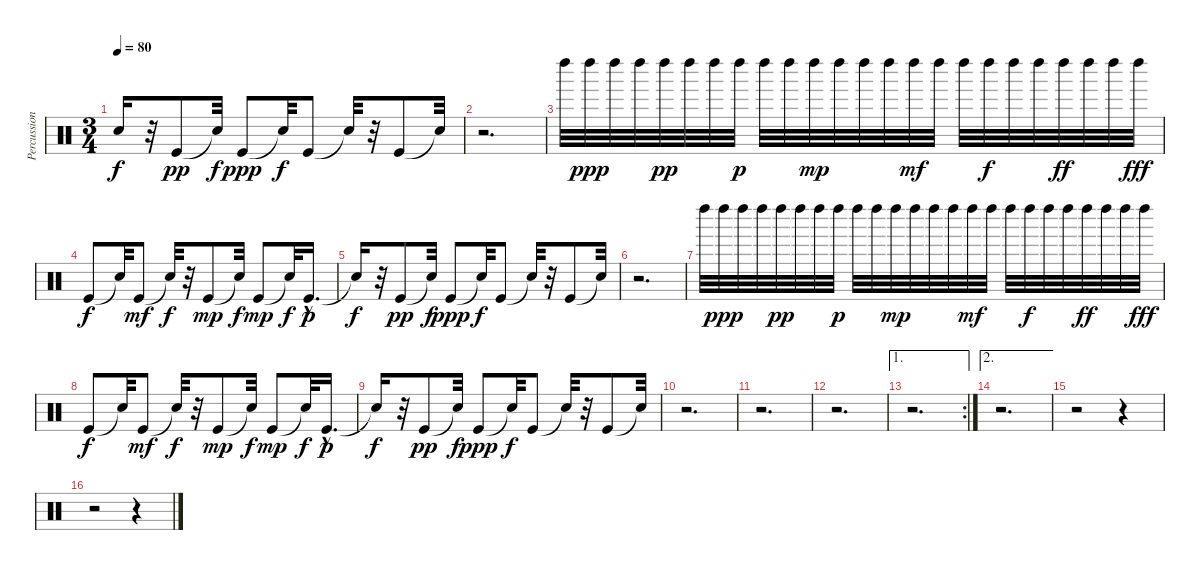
\track ("Percussions" "Percussion") {instrument percussion}
\staff {score}
\articulation defaults
\ts (3 4)
\tempo 80
\clef neutral
\ks c "Snare (hit)"{t}.16{dy f}
r.32 "Kick (hit)".8{dy pp balance 13} "Snare (hit)"{t}.32{dy f} "Kick (hit)".8{dy ppp balance 14} "Snare (hit)"{t}.32{dy f} "Kick (hit)".8{balance 14} "Snare (hit)"{t}.32 r.32 "Kick (hit)".8{balance 15} "Snare (hit)"{t}.32 |
r.2{d} |
"Left Maraca (hit)".32{balance 0} "Left Maraca (hit)".32{dy ppp balance 0} "Left Maraca (hit)".32{balance 1} "Left Maraca (hit)".32{balance 1} "Left Maraca (hit)".32{dy pp balance 2} "Left Maraca (hit)".32{balance 2} "Left Maraca (hit)".32{balance 2} "Left Maraca (hit)".32{dy p balance 3} "Left Maraca (hit)".32{balance 3} "Left Maraca (hit)".32{balance 4} "Left Maraca (hit)".32{dy mp balance 4} "Left Maraca (hit)".32{balance 4} "Left Maraca (hit)".32{balance 5} "Left Maraca (hit)".32{balance 5} "Left Maraca (hit)".32{dy mf balance 5} "Left Maraca (hit)".32{balance 6} "Left Maraca (hit)".32{balance 6} "Left Maraca (hit)".32{dy f balance 7} "Left Maraca (hit)".32{balance 7} "Left Maraca (hit)".32{balance 7} "Left Maraca (hit)".32{dy ff balance 8} "Left Maraca (hit)".32{balance 8} "Left Maraca (hit)".32{balance 8} "Left Maraca (hit)".32{dy fff balance 9} |
"Kick (hit)".8{dy f balance 9} "Snare (hit)"{t}.32 "Kick (hit)".8{dy mf balance 10} "Snare (hit)"{t}.32{dy f} r.32 "Kick (hit)".8{dy mp balance 11} "Snare (hit)"{t}.32{dy f} "Kick (hit)".8{dy mp balance 12} "Snare (hit)"{t}.32{dy f} "Kick (hit)"{hac}.16{d dy p balance 12} |
"Snare (hit)"{t}.16{dy f} r.32 "Kick (hit)".8{dy pp balance 13} "Snare (hit)"{t}.32{dy f} "Kick (hit)".8{dy ppp balance 14} "Snare (hit)"{t}.32{dy f} "Kick (hit)".8{balance 14} "Snare (hit)"{t}.32 r.32 "Kick (hit)".8{balance 15} "Snare (hit)"{t}.32 |
r.2{d} |
"Left Maraca (hit)".32{balance 0} "Left Maraca (hit)".32{dy ppp balance 0} "Left Maraca (hit)".32{balance 1} "Left Maraca (hit)".32{balance 1} "Left Maraca (hit)".32{dy pp balance 2} "Left Maraca (hit)".32{balance 2} "Left Maraca (hit)".32{balance 2} "Left Maraca (hit)".32{dy p balance 3} "Left Maraca (hit)".32{balance 3} "Left Maraca (hit)".32{balance 4} "Left Maraca (hit)".32{dy mp balance 4} "Left Maraca (hit)".32{balance 4} "Left Maraca (hit)".32{balance 5} "Left Maraca (hit)".32{balance 5} "Left Maraca (hit)".32{dy mf balance 5} "Left Maraca (hit)".32{balance 6} "Left Maraca (hit)".32{balance 6} "Left Maraca (hit)".32{dy f balance 7} "Left Maraca (hit)".32{balance 7} "Left Maraca (hit)".32{balance 7} "Left Maraca (hit)".32{dy ff balance 8} "Left Maraca (hit)".32{balance 8} "Left Maraca (hit)".32{balance 8} "Left Maraca (hit)".32{dy fff balance 9} |
"Kick (hit)".8{dy f balance 9} "Snare (hit)"{t}.32 "Kick (hit)".8{dy mf balance 10} "Snare (hit)"{t}.32{dy f} r.32 "Kick (hit)".8{dy mp balance 11} "Snare (hit)"{t}.32{dy f} "Kick (hit)".8{dy mp balance 12} "Snare (hit)"{t}.32{dy f} "Kick (hit)"{hac}.16{d dy p balance 12} |
"Snare (hit)"{t}.16{dy f} r.32 "Kick (hit)".8{dy pp balance 13} "Snare (hit)"{t}.32{dy f} "Kick (hit)".8{dy ppp balance 14} "Snare (hit)"{t}.32{dy f} "Kick (hit)".8{balance 14} "Snare (hit)"{t}.32 r.32 "Kick (hit)".8{balance 15} "Snare (hit)"{t}.32 |
r.2{d} |
r.2{d} |
r.2{d} |
\ae 1
\rc 2
r.2{d} |
\ae 2
r.2{d} |
r.2 r.4 |
r.2 r.4
